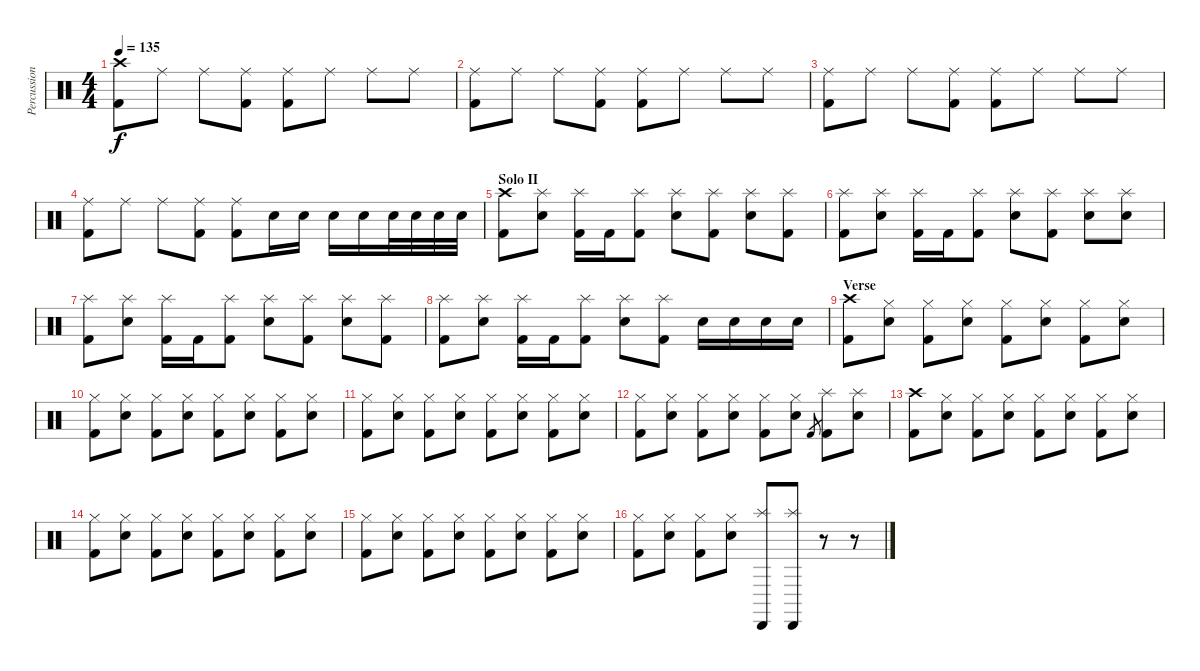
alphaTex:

\track ("Percussion" "Percussion") {instrument percussion}
\staff {score}
\articulation defaults
\ts (4 4)
\tempo 135
\clef neutral
\ks c
("Crash high (hit)" "Kick (hit) 2").8{dy f} "Ride (middle)".8 "Ride (middle)".8 ("Ride (middle)" "Kick (hit) 2").8 ("Ride (middle)" "Kick (hit) 2").8 "Ride (middle)".8 "Ride (middle)".8 "Ride (middle)".8 |
("Ride (middle)" "Kick (hit) 2").8 "Ride (middle)".8 "Ride (middle)".8 ("Ride (middle)" "Kick (hit) 2").8 ("Ride (middle)" "Kick (hit) 2").8 "Ride (middle)".8 "Ride (middle)".8 "Ride (middle)".8 |
("Ride (middle)" "Kick (hit) 2").8 "Ride (middle)".8 "Ride (middle)".8 ("Ride (middle)" "Kick (hit) 2").8 ("Ride (middle)" "Kick (hit) 2").8 "Ride (middle)".8 "Ride (middle)".8 "Ride (middle)".8 |
("Ride (middle)" "Kick (hit) 2").8 "Ride (middle)".8 "Ride (middle)".8 ("Ride (middle)" "Kick (hit) 2").8 ("Ride (middle)" "Kick (hit) 2").8 "Electric Snare (hit)".16 "Electric Snare (hit)".16 "Electric Snare (hit)".16 "Electric Snare (hit)".16 "Electric Snare (hit)".32 "Electric Snare (hit)".32 "Electric Snare (hit)".32 "Electric Snare (hit)".32 |
\section ("" "Solo II")
("Crash high (hit)" "Kick (hit) 2").8 ("Splash (hit)" "Electric Snare (hit)").8 ("Splash (hit)" "Kick (hit) 2").16 "Kick (hit) 2".16 ("Splash (hit)" "Kick (hit) 2").8 ("Splash (hit)" "Electric Snare (hit)").8 ("Splash (hit)" "Kick (hit) 2").8 ("Splash (hit)" "Electric Snare (hit)").8 ("Splash (hit)" "Kick (hit) 2").8 |
("Splash (hit)" "Kick (hit) 2").8 ("Splash (hit)" "Electric Snare (hit)").8 ("Splash (hit)" "Kick (hit) 2").16 "Kick (hit) 2".16 ("Splash (hit)" "Kick (hit) 2").8 ("Splash (hit)" "Electric Snare (hit)").8 ("Splash (hit)" "Kick (hit) 2").8 ("Splash (hit)" "Electric Snare (hit)").8 ("Splash (hit)" "Electric Snare (hit)").8 |
("Splash (hit)" "Kick (hit) 2").8 ("Splash (hit)" "Electric Snare (hit)").8 ("Splash (hit)" "Kick (hit) 2").16 "Kick (hit) 2".16 ("Splash (hit)" "Kick (hit) 2").8 ("Splash (hit)" "Electric Snare (hit)").8 ("Splash (hit)" "Kick (hit) 2").8 ("Splash (hit)" "Electric Snare (hit)").8 ("Splash (hit)" "Kick (hit) 2").8 |
("Splash (hit)" "Kick (hit) 2").8 ("Splash (hit)" "Electric Snare (hit)").8 ("Splash (hit)" "Kick (hit) 2").16 "Kick (hit) 2".16 ("Splash (hit)" "Kick (hit) 2").8 ("Splash (hit)" "Electric Snare (hit)").8 ("Splash (hit)" "Kick (hit) 2").8 "Electric Snare (hit)".16 "Electric Snare (hit)".16 "Electric Snare (hit)".16 "Electric Snare (hit)".16 |
\section ("" "Verse")
("Crash high (hit)" "Kick (hit) 2").8 ("Hi-Hat (closed)" "Electric Snare (hit)").8 ("Hi-Hat (closed)" "Kick (hit) 2").8 ("Hi-Hat (closed)" "Electric Snare (hit)").8 ("Hi-Hat (closed)" "Kick (hit) 2").8 ("Hi-Hat (closed)" "Electric Snare (hit)").8 ("Hi-Hat (closed)" "Kick (hit) 2").8 ("Hi-Hat (closed)" "Electric Snare (hit)").8 |
("Hi-Hat (closed)" "Kick (hit) 2").8 ("Hi-Hat (closed)" "Electric Snare (hit)").8 ("Hi-Hat (closed)" "Kick (hit) 2").8 ("Hi-Hat (closed)" "Electric Snare (hit)").8 ("Hi-Hat (closed)" "Kick (hit) 2").8 ("Hi-Hat (closed)" "Electric Snare (hit)").8 ("Hi-Hat (closed)" "Kick (hit) 2").8 ("Hi-Hat (closed)" "Electric Snare (hit)").8 |
("Hi-Hat (closed)" "Kick (hit) 2").8 ("Hi-Hat (closed)" "Electric Snare (hit)").8 ("Hi-Hat (closed)" "Kick (hit) 2").8 ("Hi-Hat (closed)" "Electric Snare (hit)").8 ("Hi-Hat (closed)" "Kick (hit) 2").8 ("Hi-Hat (closed)" "Electric Snare (hit)").8 ("Hi-Hat (closed)" "Kick (hit) 2").8 ("Hi-Hat (closed)" "Electric Snare (hit)").8 |
("Hi-Hat (closed)" "Kick (hit) 2").8 ("Hi-Hat (closed)" "Electric Snare (hit)").8 ("Hi-Hat (closed)" "Kick (hit) 2").8 ("Hi-Hat (closed)" "Electric Snare (hit)").8 ("Hi-Hat (closed)" "Kick (hit) 2").8 ("Hi-Hat (closed)" "Electric Snare (hit)").8 "Kick (hit) 2".8{gr} ("Splash (hit)" "Kick (hit) 2").8 ("Splash (hit)" "Electric Snare (hit)").8 |
("Crash high (hit)" "Kick (hit) 2").8 ("Hi-Hat (closed)" "Electric Snare (hit)").8 ("Hi-Hat (closed)" "Kick (hit) 2").8 ("Hi-Hat (closed)" "Electric Snare (hit)").8 ("Hi-Hat (closed)" "Kick (hit) 2").8 ("Hi-Hat (closed)" "Electric Snare (hit)").8 ("Hi-Hat (closed)" "Kick (hit) 2").8 ("Hi-Hat (closed)" "Electric Snare (hit)").8 |
("Hi-Hat (closed)" "Kick (hit) 2").8 ("Hi-Hat (closed)" "Electric Snare (hit)").8 ("Hi-Hat (closed)" "Kick (hit) 2").8 ("Hi-Hat (closed)" "Electric Snare (hit)").8 ("Hi-Hat (closed)" "Kick (hit) 2").8 ("Hi-Hat (closed)" "Electric Snare (hit)").8 ("Hi-Hat (closed)" "Kick (hit) 2").8 ("Hi-Hat (closed)" "Electric Snare (hit)").8 |
("Hi-Hat (closed)" "Kick (hit) 2").8 ("Hi-Hat (closed)" "Electric Snare (hit)").8 ("Hi-Hat (closed)" "Kick (hit) 2").8 ("Hi-Hat (closed)" "Electric Snare (hit)").8 ("Hi-Hat (closed)" "Kick (hit) 2").8 ("Hi-Hat (closed)" "Electric Snare (hit)").8 ("Hi-Hat (closed)" "Kick (hit) 2").8 ("Hi-Hat (closed)" "Electric Snare (hit)").8 |
("Hi-Hat (closed)" "Kick (hit) 2").8 ("Hi-Hat (closed)" "Electric Snare (hit)").8 ("Hi-Hat (closed)" "Kick (hit) 2").8 ("Hi-Hat (closed)" "Electric Snare (hit)").8 ("Splash (hit)" "Cabasa (hit)").8 ("Splash (hit)" "Cabasa (hit)").8 r.8 r.8
